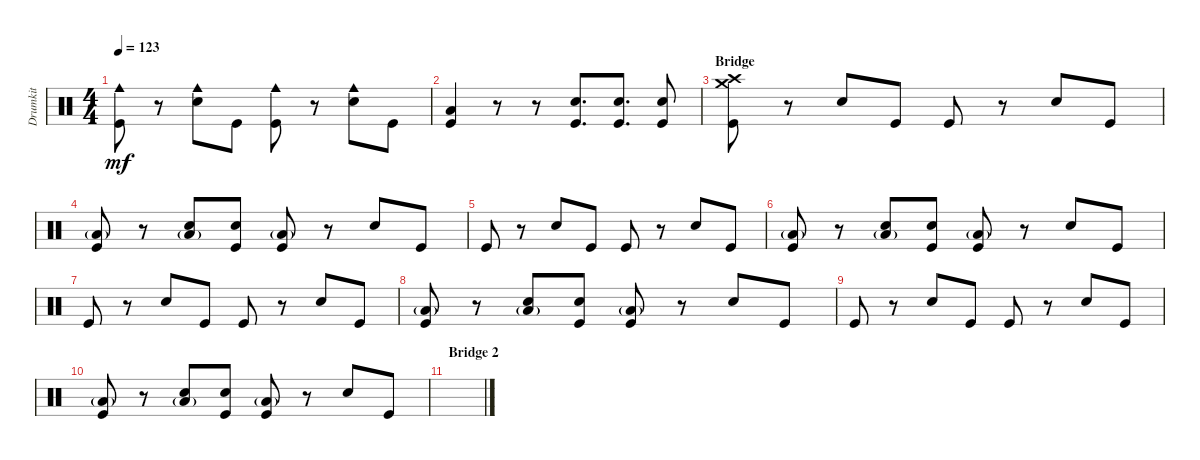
\track ("Drumkit" "Drumkit") {instrument percussion}
\staff {score}
\articulation defaults
\ts (4 4)
\tempo 123
\clef neutral
\ks c
("Kick (hit)" "Cowbell medium (hit)").8{dy mf} r.8 ("Snare (hit) 2" "Cowbell medium (hit)").8 "Kick (hit)".8 ("Kick (hit)" "Cowbell medium (hit)").8 r.8 ("Snare (hit) 2" "Cowbell medium (hit)").8 "Kick (hit)".8 |
("Kick (hit)" "Low Floor Tom (hit)").4 r.8 r.8 ("Kick (hit)" "Snare (hit) 2").8{d} ("Kick (hit)" "Snare (hit) 2").8{d} ("Kick (hit)" "Snare (hit) 2").8 |
\section ("" "Bridge")
("Kick (hit)" "Crash high (hit)" "Crash medium (hit)").8 r.8 "Snare (hit) 2".8 "Kick (hit)".8 "Kick (hit)".8 r.8 "Snare (hit) 2".8 "Kick (hit)".8 |
("Kick (hit)" "Low Floor Tom (hit)"{g}).8 r.8 ("Snare (hit) 2" "Low Floor Tom (hit)"{g}).8 ("Kick (hit)" "Snare (hit) 2").8 ("Kick (hit)" "Low Floor Tom (hit)"{g}).8 r.8 "Snare (hit) 2".8 "Kick (hit)".8 |
"Kick (hit)".8 r.8 "Snare (hit) 2".8 "Kick (hit)".8 "Kick (hit)".8 r.8 "Snare (hit) 2".8 "Kick (hit)".8 |
("Kick (hit)" "Low Floor Tom (hit)"{g}).8 r.8 ("Snare (hit) 2" "Low Floor Tom (hit)"{g}).8 ("Kick (hit)" "Snare (hit) 2").8 ("Kick (hit)" "Low Floor Tom (hit)"{g}).8 r.8 "Snare (hit) 2".8 "Kick (hit)".8 |
"Kick (hit)".8 r.8 "Snare (hit) 2".8 "Kick (hit)".8 "Kick (hit)".8 r.8 "Snare (hit) 2".8 "Kick (hit)".8 |
("Kick (hit)" "Low Floor Tom (hit)"{g}).8 r.8 ("Snare (hit) 2" "Low Floor Tom (hit)"{g}).8 ("Kick (hit)" "Snare (hit) 2").8 ("Kick (hit)" "Low Floor Tom (hit)"{g}).8 r.8 "Snare (hit) 2".8 "Kick (hit)".8 |
"Kick (hit)".8 r.8 "Snare (hit) 2".8 "Kick (hit)".8 "Kick (hit)".8 r.8 "Snare (hit) 2".8 "Kick (hit)".8 |
("Kick (hit)" "Low Floor Tom (hit)"{g}).8 r.8 ("Snare (hit) 2" "Low Floor Tom (hit)"{g}).8 ("Kick (hit)" "Snare (hit) 2").8 ("Kick (hit)" "Low Floor Tom (hit)"{g}).8 r.8 "Snare (hit) 2".8 "Kick (hit)".8 |
\section ("" "Bridge 2")
